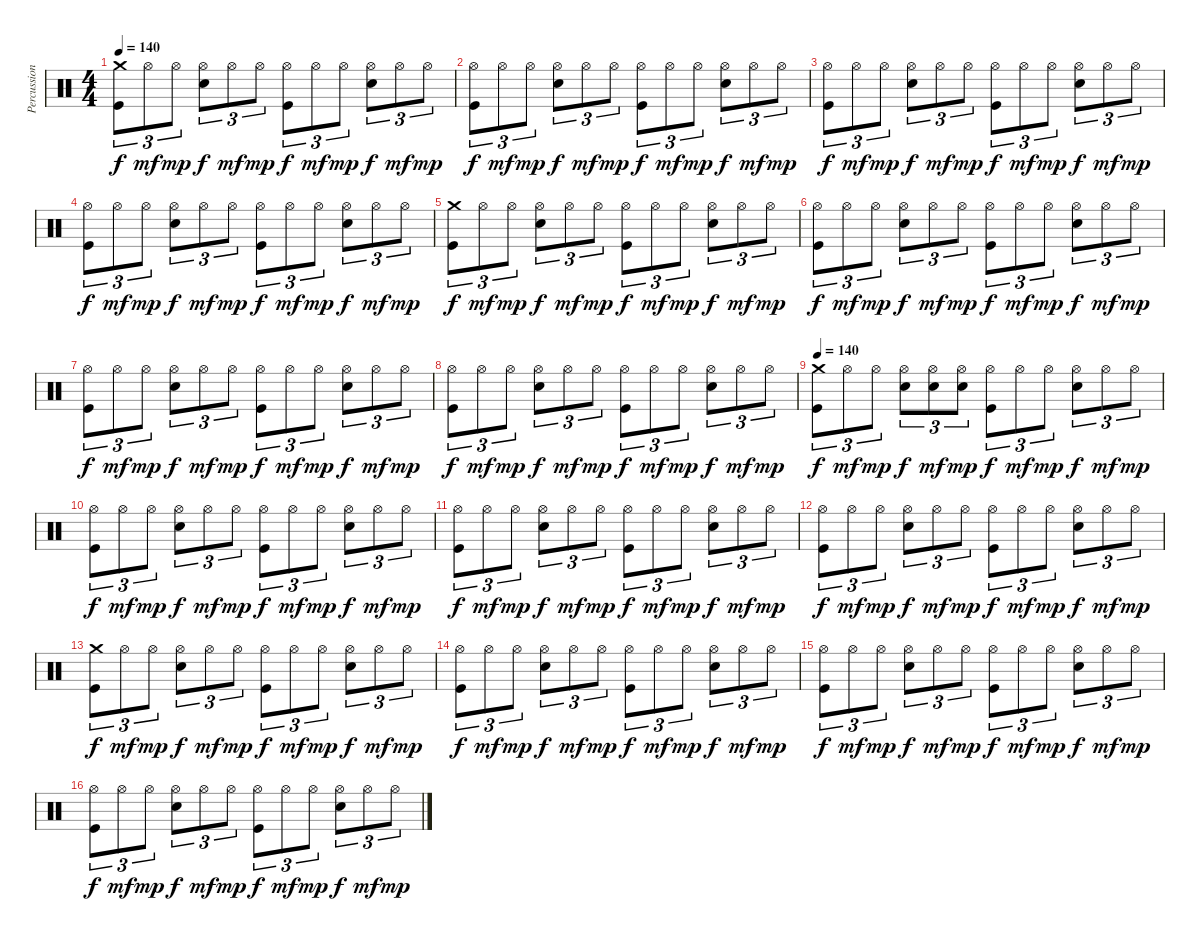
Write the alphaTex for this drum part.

\track ("Percussions" "Percussion") {instrument percussion}
\staff {score}
\articulation defaults
\ts (4 4)
\tempo 140
\clef neutral
\ks c
("Crash medium (hit)" "Kick (hit)").8{tu (3 2) dy f} "Hi-Hat (open)".8{tu (3 2) dy mf} "Hi-Hat (open)".8{tu (3 2) dy mp} ("Hi-Hat (open)" "Electric Snare (hit)").8{tu (3 2) dy f} "Hi-Hat (open)".8{tu (3 2) dy mf} "Hi-Hat (open)".8{tu (3 2) dy mp} ("Hi-Hat (open)" "Kick (hit)").8{tu (3 2) dy f} "Hi-Hat (open)".8{tu (3 2) dy mf} "Hi-Hat (open)".8{tu (3 2) dy mp} ("Hi-Hat (open)" "Electric Snare (hit)").8{tu (3 2) dy f} "Hi-Hat (open)".8{tu (3 2) dy mf} "Hi-Hat (open)".8{tu (3 2) dy mp} |
("Hi-Hat (open)" "Kick (hit)").8{tu (3 2) dy f} "Hi-Hat (open)".8{tu (3 2) dy mf} "Hi-Hat (open)".8{tu (3 2) dy mp} ("Hi-Hat (open)" "Electric Snare (hit)").8{tu (3 2) dy f} "Hi-Hat (open)".8{tu (3 2) dy mf} "Hi-Hat (open)".8{tu (3 2) dy mp} ("Hi-Hat (open)" "Kick (hit)").8{tu (3 2) dy f} "Hi-Hat (open)".8{tu (3 2) dy mf} "Hi-Hat (open)".8{tu (3 2) dy mp} ("Hi-Hat (open)" "Electric Snare (hit)").8{tu (3 2) dy f} "Hi-Hat (open)".8{tu (3 2) dy mf} "Hi-Hat (open)".8{tu (3 2) dy mp} |
("Hi-Hat (open)" "Kick (hit)").8{tu (3 2) dy f} "Hi-Hat (open)".8{tu (3 2) dy mf} "Hi-Hat (open)".8{tu (3 2) dy mp} ("Hi-Hat (open)" "Electric Snare (hit)").8{tu (3 2) dy f} "Hi-Hat (open)".8{tu (3 2) dy mf} "Hi-Hat (open)".8{tu (3 2) dy mp} ("Hi-Hat (open)" "Kick (hit)").8{tu (3 2) dy f} "Hi-Hat (open)".8{tu (3 2) dy mf} "Hi-Hat (open)".8{tu (3 2) dy mp} ("Hi-Hat (open)" "Electric Snare (hit)").8{tu (3 2) dy f} "Hi-Hat (open)".8{tu (3 2) dy mf} "Hi-Hat (open)".8{tu (3 2) dy mp} |
("Hi-Hat (open)" "Kick (hit)").8{tu (3 2) dy f} "Hi-Hat (open)".8{tu (3 2) dy mf} "Hi-Hat (open)".8{tu (3 2) dy mp} ("Hi-Hat (open)" "Electric Snare (hit)").8{tu (3 2) dy f} "Hi-Hat (open)".8{tu (3 2) dy mf} "Hi-Hat (open)".8{tu (3 2) dy mp} ("Hi-Hat (open)" "Kick (hit)").8{tu (3 2) dy f} "Hi-Hat (open)".8{tu (3 2) dy mf} "Hi-Hat (open)".8{tu (3 2) dy mp} ("Hi-Hat (open)" "Electric Snare (hit)").8{tu (3 2) dy f} "Hi-Hat (open)".8{tu (3 2) dy mf} "Hi-Hat (open)".8{tu (3 2) dy mp} |
("Crash medium (hit)" "Kick (hit)").8{tu (3 2) dy f} "Hi-Hat (open)".8{tu (3 2) dy mf} "Hi-Hat (open)".8{tu (3 2) dy mp} ("Hi-Hat (open)" "Electric Snare (hit)").8{tu (3 2) dy f} "Hi-Hat (open)".8{tu (3 2) dy mf} "Hi-Hat (open)".8{tu (3 2) dy mp} ("Hi-Hat (open)" "Kick (hit)").8{tu (3 2) dy f} "Hi-Hat (open)".8{tu (3 2) dy mf} "Hi-Hat (open)".8{tu (3 2) dy mp} ("Hi-Hat (open)" "Electric Snare (hit)").8{tu (3 2) dy f} "Hi-Hat (open)".8{tu (3 2) dy mf} "Hi-Hat (open)".8{tu (3 2) dy mp} |
("Hi-Hat (open)" "Kick (hit)").8{tu (3 2) dy f} "Hi-Hat (open)".8{tu (3 2) dy mf} "Hi-Hat (open)".8{tu (3 2) dy mp} ("Hi-Hat (open)" "Electric Snare (hit)").8{tu (3 2) dy f} "Hi-Hat (open)".8{tu (3 2) dy mf} "Hi-Hat (open)".8{tu (3 2) dy mp} ("Hi-Hat (open)" "Kick (hit)").8{tu (3 2) dy f} "Hi-Hat (open)".8{tu (3 2) dy mf} "Hi-Hat (open)".8{tu (3 2) dy mp} ("Hi-Hat (open)" "Electric Snare (hit)").8{tu (3 2) dy f} "Hi-Hat (open)".8{tu (3 2) dy mf} "Hi-Hat (open)".8{tu (3 2) dy mp} |
("Hi-Hat (open)" "Kick (hit)").8{tu (3 2) dy f} "Hi-Hat (open)".8{tu (3 2) dy mf} "Hi-Hat (open)".8{tu (3 2) dy mp} ("Hi-Hat (open)" "Electric Snare (hit)").8{tu (3 2) dy f} "Hi-Hat (open)".8{tu (3 2) dy mf} "Hi-Hat (open)".8{tu (3 2) dy mp} ("Hi-Hat (open)" "Kick (hit)").8{tu (3 2) dy f} "Hi-Hat (open)".8{tu (3 2) dy mf} "Hi-Hat (open)".8{tu (3 2) dy mp} ("Hi-Hat (open)" "Electric Snare (hit)").8{tu (3 2) dy f} "Hi-Hat (open)".8{tu (3 2) dy mf} "Hi-Hat (open)".8{tu (3 2) dy mp} |
("Hi-Hat (open)" "Kick (hit)").8{tu (3 2) dy f} "Hi-Hat (open)".8{tu (3 2) dy mf} "Hi-Hat (open)".8{tu (3 2) dy mp} ("Hi-Hat (open)" "Electric Snare (hit)").8{tu (3 2) dy f} "Hi-Hat (open)".8{tu (3 2) dy mf} "Hi-Hat (open)".8{tu (3 2) dy mp} ("Hi-Hat (open)" "Kick (hit)").8{tu (3 2) dy f} "Hi-Hat (open)".8{tu (3 2) dy mf} "Hi-Hat (open)".8{tu (3 2) dy mp} ("Hi-Hat (open)" "Electric Snare (hit)").8{tu (3 2) dy f} "Hi-Hat (open)".8{tu (3 2) dy mf} "Hi-Hat (open)".8{tu (3 2) dy mp} |
\tempo 140
("Crash medium (hit)" "Kick (hit)").8{tu (3 2) dy f} "Hi-Hat (open)".8{tu (3 2) dy mf} "Hi-Hat (open)".8{tu (3 2) dy mp} ("Hi-Hat (open)" "Electric Snare (hit)").8{tu (3 2) dy f} ("Hi-Hat (open)" "Snare (hit)").8{tu (3 2) dy mf} ("Hi-Hat (open)" "Snare (hit)").8{tu (3 2) dy mp} ("Hi-Hat (open)" "Kick (hit)").8{tu (3 2) dy f} "Hi-Hat (open)".8{tu (3 2) dy mf} "Hi-Hat (open)".8{tu (3 2) dy mp} ("Hi-Hat (open)" "Electric Snare (hit)").8{tu (3 2) dy f} "Hi-Hat (open)".8{tu (3 2) dy mf} "Hi-Hat (open)".8{tu (3 2) dy mp} |
("Hi-Hat (open)" "Kick (hit)").8{tu (3 2) dy f} "Hi-Hat (open)".8{tu (3 2) dy mf} "Hi-Hat (open)".8{tu (3 2) dy mp} ("Hi-Hat (open)" "Electric Snare (hit)").8{tu (3 2) dy f} "Hi-Hat (open)".8{tu (3 2) dy mf} "Hi-Hat (open)".8{tu (3 2) dy mp} ("Hi-Hat (open)" "Kick (hit)").8{tu (3 2) dy f} "Hi-Hat (open)".8{tu (3 2) dy mf} "Hi-Hat (open)".8{tu (3 2) dy mp} ("Hi-Hat (open)" "Electric Snare (hit)").8{tu (3 2) dy f} "Hi-Hat (open)".8{tu (3 2) dy mf} "Hi-Hat (open)".8{tu (3 2) dy mp} |
("Hi-Hat (open)" "Kick (hit)").8{tu (3 2) dy f} "Hi-Hat (open)".8{tu (3 2) dy mf} "Hi-Hat (open)".8{tu (3 2) dy mp} ("Hi-Hat (open)" "Electric Snare (hit)").8{tu (3 2) dy f} "Hi-Hat (open)".8{tu (3 2) dy mf} "Hi-Hat (open)".8{tu (3 2) dy mp} ("Hi-Hat (open)" "Kick (hit)").8{tu (3 2) dy f} "Hi-Hat (open)".8{tu (3 2) dy mf} "Hi-Hat (open)".8{tu (3 2) dy mp} ("Hi-Hat (open)" "Electric Snare (hit)").8{tu (3 2) dy f} "Hi-Hat (open)".8{tu (3 2) dy mf} "Hi-Hat (open)".8{tu (3 2) dy mp} |
("Hi-Hat (open)" "Kick (hit)").8{tu (3 2) dy f} "Hi-Hat (open)".8{tu (3 2) dy mf} "Hi-Hat (open)".8{tu (3 2) dy mp} ("Hi-Hat (open)" "Electric Snare (hit)").8{tu (3 2) dy f} "Hi-Hat (open)".8{tu (3 2) dy mf} "Hi-Hat (open)".8{tu (3 2) dy mp} ("Hi-Hat (open)" "Kick (hit)").8{tu (3 2) dy f} "Hi-Hat (open)".8{tu (3 2) dy mf} "Hi-Hat (open)".8{tu (3 2) dy mp} ("Hi-Hat (open)" "Electric Snare (hit)").8{tu (3 2) dy f} "Hi-Hat (open)".8{tu (3 2) dy mf} "Hi-Hat (open)".8{tu (3 2) dy mp} |
("Crash medium (hit)" "Kick (hit)").8{tu (3 2) dy f} "Hi-Hat (open)".8{tu (3 2) dy mf} "Hi-Hat (open)".8{tu (3 2) dy mp} ("Hi-Hat (open)" "Electric Snare (hit)").8{tu (3 2) dy f} "Hi-Hat (open)".8{tu (3 2) dy mf} "Hi-Hat (open)".8{tu (3 2) dy mp} ("Hi-Hat (open)" "Kick (hit)").8{tu (3 2) dy f} "Hi-Hat (open)".8{tu (3 2) dy mf} "Hi-Hat (open)".8{tu (3 2) dy mp} ("Hi-Hat (open)" "Electric Snare (hit)").8{tu (3 2) dy f} "Hi-Hat (open)".8{tu (3 2) dy mf} "Hi-Hat (open)".8{tu (3 2) dy mp} |
("Hi-Hat (open)" "Kick (hit)").8{tu (3 2) dy f} "Hi-Hat (open)".8{tu (3 2) dy mf} "Hi-Hat (open)".8{tu (3 2) dy mp} ("Hi-Hat (open)" "Electric Snare (hit)").8{tu (3 2) dy f} "Hi-Hat (open)".8{tu (3 2) dy mf} "Hi-Hat (open)".8{tu (3 2) dy mp} ("Hi-Hat (open)" "Kick (hit)").8{tu (3 2) dy f} "Hi-Hat (open)".8{tu (3 2) dy mf} "Hi-Hat (open)".8{tu (3 2) dy mp} ("Hi-Hat (open)" "Electric Snare (hit)").8{tu (3 2) dy f} "Hi-Hat (open)".8{tu (3 2) dy mf} "Hi-Hat (open)".8{tu (3 2) dy mp} |
("Hi-Hat (open)" "Kick (hit)").8{tu (3 2) dy f} "Hi-Hat (open)".8{tu (3 2) dy mf} "Hi-Hat (open)".8{tu (3 2) dy mp} ("Hi-Hat (open)" "Electric Snare (hit)").8{tu (3 2) dy f} "Hi-Hat (open)".8{tu (3 2) dy mf} "Hi-Hat (open)".8{tu (3 2) dy mp} ("Hi-Hat (open)" "Kick (hit)").8{tu (3 2) dy f} "Hi-Hat (open)".8{tu (3 2) dy mf} "Hi-Hat (open)".8{tu (3 2) dy mp} ("Hi-Hat (open)" "Electric Snare (hit)").8{tu (3 2) dy f} "Hi-Hat (open)".8{tu (3 2) dy mf} "Hi-Hat (open)".8{tu (3 2) dy mp} |
("Hi-Hat (open)" "Kick (hit)").8{tu (3 2) dy f} "Hi-Hat (open)".8{tu (3 2) dy mf} "Hi-Hat (open)".8{tu (3 2) dy mp} ("Hi-Hat (open)" "Electric Snare (hit)").8{tu (3 2) dy f} "Hi-Hat (open)".8{tu (3 2) dy mf} "Hi-Hat (open)".8{tu (3 2) dy mp} ("Hi-Hat (open)" "Kick (hit)").8{tu (3 2) dy f} "Hi-Hat (open)".8{tu (3 2) dy mf} "Hi-Hat (open)".8{tu (3 2) dy mp} ("Hi-Hat (open)" "Electric Snare (hit)").8{tu (3 2) dy f} "Hi-Hat (open)".8{tu (3 2) dy mf} "Hi-Hat (open)".8{tu (3 2) dy mp}
